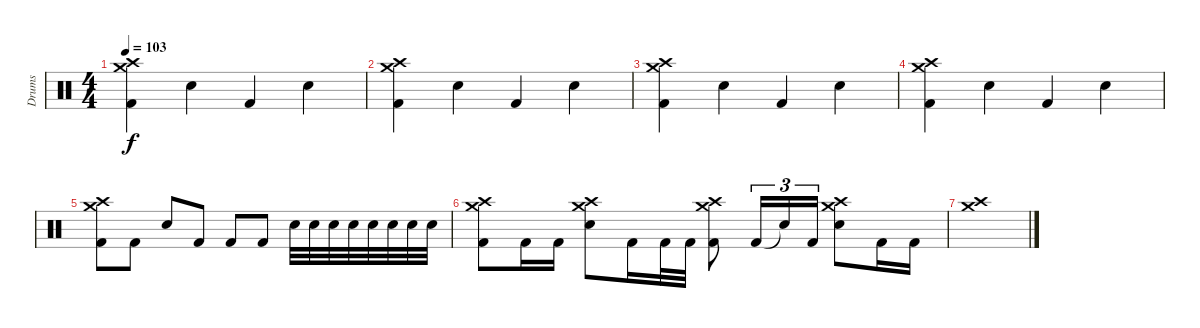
\track ("Drums" "Drums") {instrument percussion}
\staff {score}
\articulation defaults
\ts (4 4)
\tempo 103
\clef neutral
\ks c
("Crash high (hit)" "Crash medium (hit)" "Kick (hit) 2").4{dy f} "Snare (hit) 2".4 "Kick (hit) 2".4 "Snare (hit) 2".4 |
("Crash high (hit)" "Crash medium (hit)" "Kick (hit) 2").4 "Snare (hit) 2".4 "Kick (hit) 2".4 "Snare (hit) 2".4 |
("Crash high (hit)" "Crash medium (hit)" "Kick (hit) 2").4 "Snare (hit) 2".4 "Kick (hit) 2".4 "Snare (hit) 2".4 |
("Crash high (hit)" "Crash medium (hit)" "Kick (hit) 2").4 "Snare (hit) 2".4 "Kick (hit) 2".4 "Snare (hit) 2".4 |
("Crash high (hit)" "Crash medium (hit)" "Kick (hit) 2").8 "Kick (hit) 2".8 "Snare (hit) 2".8 "Kick (hit) 2".8 "Kick (hit) 2".8 "Kick (hit) 2".8 "Snare (hit) 2".32 "Snare (hit) 2".32 "Snare (hit) 2".32 "Snare (hit) 2".32 "Snare (hit) 2".32 "Snare (hit) 2".32 "Snare (hit) 2".32 "Snare (hit) 2".32 |
("Crash high (hit)" "Crash medium (hit)" "Kick (hit) 2").8 "Kick (hit) 2".16 "Kick (hit) 2".16 ("Crash high (hit)" "Crash medium (hit)" "Snare (hit) 2").8 "Kick (hit) 2".16 "Kick (hit) 2".32 "Kick (hit) 2".32 ("Crash high (hit)" "Crash medium (hit)" "Kick (hit) 2").8 "Kick (hit) 2".16{tu (3 2)} "Snare (hit)"{t}.16{tu (3 2)} "Kick (hit) 2".16{tu (3 2)} ("Crash high (hit)" "Crash medium (hit)" "Snare (hit) 2").8 "Kick (hit) 2".16 "Kick (hit) 2".16 |
("Crash high (hit)" "Crash medium (hit)").1
